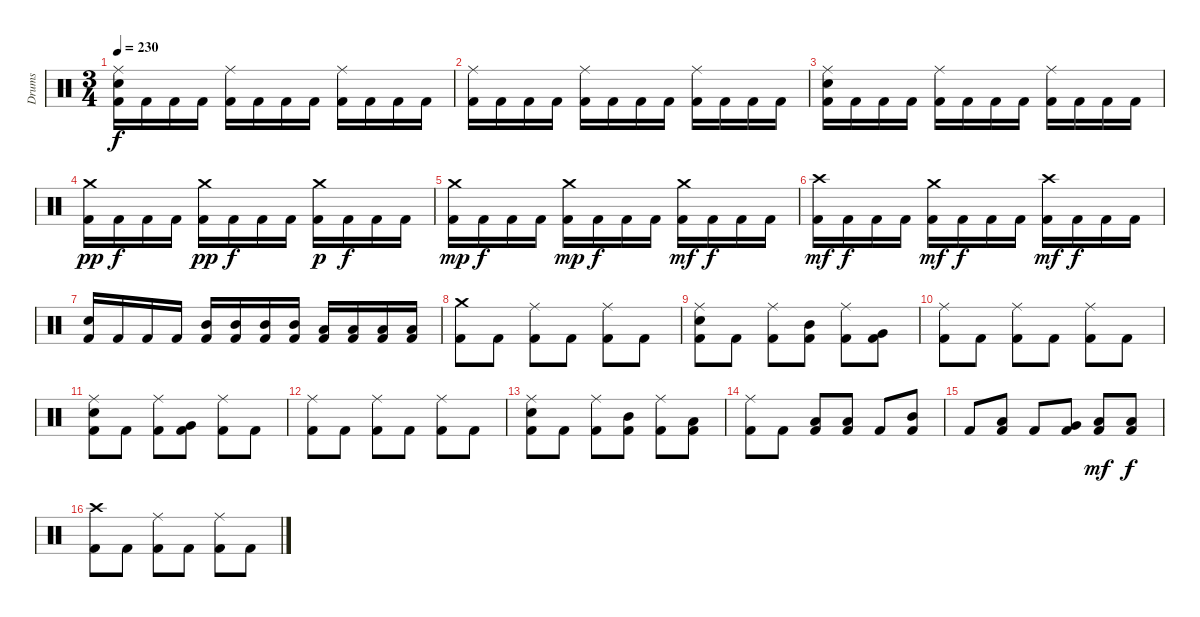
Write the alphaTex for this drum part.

\track ("Drums" "Drums") {instrument percussion}
\staff {score}
\articulation defaults
\ts (3 4)
\tempo 230
\clef neutral
\ks c
("Ride (middle)" "Electric Snare (hit)" "Kick (hit) 2").16{dy f} "Kick (hit) 2".16 "Kick (hit) 2".16 "Kick (hit) 2".16 ("Ride (middle)" "Kick (hit) 2").16 "Kick (hit) 2".16 "Kick (hit) 2".16 "Kick (hit) 2".16 ("Ride (middle)" "Kick (hit) 2").16 "Kick (hit) 2".16 "Kick (hit) 2".16 "Kick (hit) 2".16 |
("Ride (middle)" "Kick (hit) 2").16 "Kick (hit) 2".16 "Kick (hit) 2".16 "Kick (hit) 2".16 ("Ride (middle)" "Kick (hit) 2").16 "Kick (hit) 2".16 "Kick (hit) 2".16 "Kick (hit) 2".16 ("Ride (middle)" "Kick (hit) 2").16 "Kick (hit) 2".16 "Kick (hit) 2".16 "Kick (hit) 2".16 |
("Ride (middle)" "Electric Snare (hit)" "Kick (hit) 2").16 "Kick (hit) 2".16 "Kick (hit) 2".16 "Kick (hit) 2".16 ("Ride (middle)" "Kick (hit) 2").16 "Kick (hit) 2".16 "Kick (hit) 2".16 "Kick (hit) 2".16 ("Ride (middle)" "Kick (hit) 2").16 "Kick (hit) 2".16 "Kick (hit) 2".16 "Kick (hit) 2".16 |
("Crash medium (hit)" "Kick (hit) 2").16{dy pp} "Kick (hit) 2".16{dy f} "Kick (hit) 2".16 "Kick (hit) 2".16 ("Crash medium (hit)" "Kick (hit) 2").16{dy pp} "Kick (hit) 2".16{dy f} "Kick (hit) 2".16 "Kick (hit) 2".16 ("Crash medium (hit)" "Kick (hit) 2").16{dy p} "Kick (hit) 2".16{dy f} "Kick (hit) 2".16 "Kick (hit) 2".16 |
("Crash medium (hit)" "Kick (hit) 2").16{dy mp} "Kick (hit) 2".16{dy f} "Kick (hit) 2".16 "Kick (hit) 2".16 ("Crash medium (hit)" "Kick (hit) 2").16{dy mp} "Kick (hit) 2".16{dy f} "Kick (hit) 2".16 "Kick (hit) 2".16 ("Crash medium (hit)" "Kick (hit) 2").16{dy mf} "Kick (hit) 2".16{dy f} "Kick (hit) 2".16 "Kick (hit) 2".16 |
("Crash high (hit)" "Kick (hit) 2").16{dy mf} "Kick (hit) 2".16{dy f} "Kick (hit) 2".16 "Kick (hit) 2".16 ("Crash medium (hit)" "Kick (hit) 2").16{dy mf} "Kick (hit) 2".16{dy f} "Kick (hit) 2".16 "Kick (hit) 2".16 ("Crash high (hit)" "Kick (hit) 2").16{dy mf} "Kick (hit) 2".16{dy f} "Kick (hit) 2".16 "Kick (hit) 2".16 |
("Electric Snare (hit)" "Kick (hit) 2").16 "Kick (hit) 2".16 "Kick (hit) 2".16 "Kick (hit) 2".16 ("Mid Tom (hit)" "Kick (hit) 2").16 ("Mid Tom (hit)" "Kick (hit) 2").16 ("Mid Tom (hit)" "Kick (hit) 2").16 ("Mid Tom (hit)" "Kick (hit) 2").16 ("Low Tom (hit)" "Kick (hit) 2").16 ("Low Tom (hit)" "Kick (hit) 2").16 ("Low Tom (hit)" "Kick (hit) 2").16 ("Low Tom (hit)" "Kick (hit) 2").16 |
("Crash medium (hit)" "Kick (hit) 2").8 "Kick (hit) 2".8 ("Ride (middle)" "Kick (hit) 2").8 "Kick (hit) 2".8 ("Ride (middle)" "Kick (hit) 2").8 "Kick (hit) 2".8 |
("Ride (middle)" "Electric Snare (hit)" "Kick (hit) 2").8 "Kick (hit) 2".8 ("Ride (middle)" "Kick (hit) 2").8 ("Mid Tom (hit)" "Kick (hit) 2").8 ("Ride (middle)" "Kick (hit) 2").8 ("Very Low Tom (hit)" "Kick (hit) 2").8 |
("Ride (middle)" "Kick (hit) 2").8 "Kick (hit) 2".8 ("Ride (middle)" "Kick (hit) 2").8 "Kick (hit) 2".8 ("Ride (middle)" "Kick (hit) 2").8 "Kick (hit) 2".8 |
("Ride (middle)" "Electric Snare (hit)" "Kick (hit) 2").8 "Kick (hit) 2".8 ("Ride (middle)" "Kick (hit) 2").8 ("Very Low Tom (hit)" "Kick (hit) 2").8 ("Ride (middle)" "Kick (hit) 2").8 "Kick (hit) 2".8 |
("Ride (middle)" "Kick (hit) 2").8 "Kick (hit) 2".8 ("Ride (middle)" "Kick (hit) 2").8 "Kick (hit) 2".8 ("Ride (middle)" "Kick (hit) 2").8 "Kick (hit) 2".8 |
("Ride (middle)" "Electric Snare (hit)" "Kick (hit) 2").8 "Kick (hit) 2".8 ("Ride (middle)" "Kick (hit) 2").8 ("Mid Tom (hit)" "Kick (hit) 2").8 ("Ride (middle)" "Kick (hit) 2").8 ("Low Tom (hit)" "Kick (hit) 2").8 |
("Ride (middle)" "Kick (hit) 2").8 "Kick (hit) 2".8 ("Low Tom (hit)" "Kick (hit) 2").8 ("Low Tom (hit)" "Kick (hit) 2").8 "Kick (hit) 2".8 ("Mid Tom (hit)" "Kick (hit) 2").8 |
"Kick (hit) 2".8 ("Low Tom (hit)" "Kick (hit) 2").8 "Kick (hit) 2".8 ("Very Low Tom (hit)" "Kick (hit) 2").8 ("Low Floor Tom (hit)" "Kick (hit) 2").8{dy mf} ("Low Floor Tom (hit)" "Kick (hit) 2").8{dy f} |
("Crash high (hit)" "Kick (hit) 2").8 "Kick (hit) 2".8 ("Ride (middle)" "Kick (hit) 2").8 "Kick (hit) 2".8 ("Ride (middle)" "Kick (hit) 2").8 "Kick (hit) 2".8
